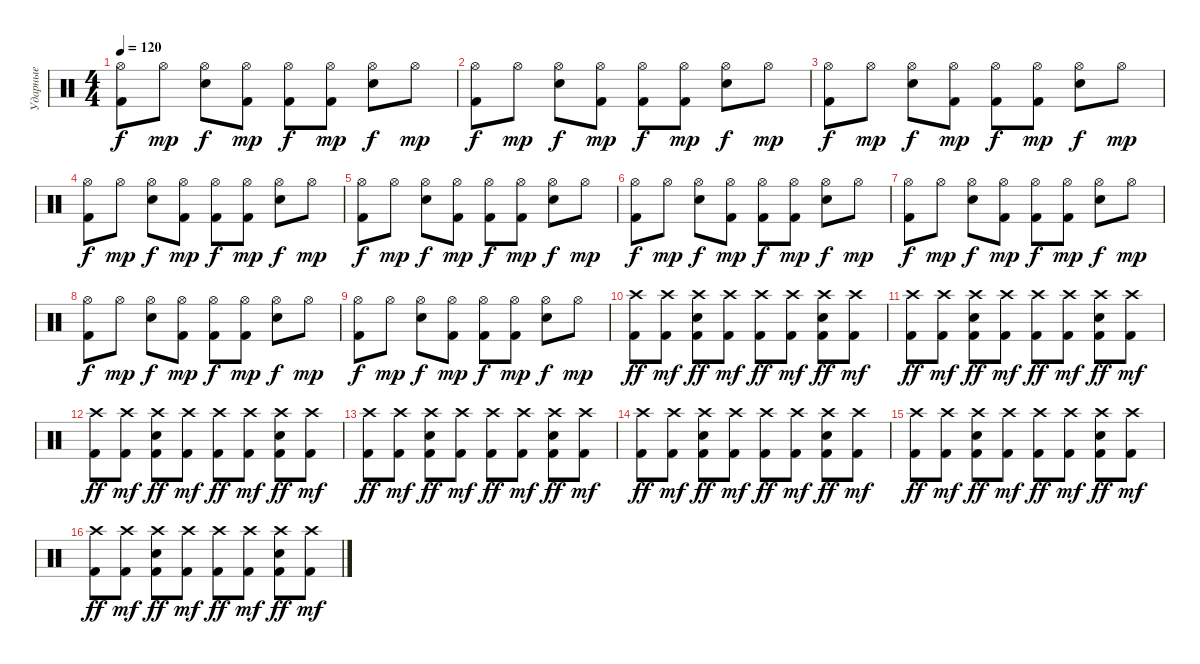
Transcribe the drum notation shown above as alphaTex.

\track ("Ударные" "Ударные") {instrument percussion}
\staff {score}
\articulation defaults
\ts (4 4)
\tempo 120
\clef neutral
\ks c
("Hi-Hat (open)" "Kick (hit) 2").8{dy f} "Hi-Hat (open)".8{dy mp} ("Hi-Hat (open)" "Snare (hit) 2").8{dy f} ("Hi-Hat (open)" "Kick (hit) 2").8{dy mp} ("Hi-Hat (open)" "Kick (hit) 2").8{dy f} ("Hi-Hat (open)" "Kick (hit) 2").8{dy mp} ("Hi-Hat (open)" "Snare (hit) 2").8{dy f} "Hi-Hat (open)".8{dy mp} |
("Hi-Hat (open)" "Kick (hit) 2").8{dy f} "Hi-Hat (open)".8{dy mp} ("Hi-Hat (open)" "Snare (hit) 2").8{dy f} ("Hi-Hat (open)" "Kick (hit) 2").8{dy mp} ("Hi-Hat (open)" "Kick (hit) 2").8{dy f} ("Hi-Hat (open)" "Kick (hit) 2").8{dy mp} ("Hi-Hat (open)" "Snare (hit) 2").8{dy f} "Hi-Hat (open)".8{dy mp} |
("Hi-Hat (open)" "Kick (hit) 2").8{dy f} "Hi-Hat (open)".8{dy mp} ("Hi-Hat (open)" "Snare (hit) 2").8{dy f} ("Hi-Hat (open)" "Kick (hit) 2").8{dy mp} ("Hi-Hat (open)" "Kick (hit) 2").8{dy f} ("Hi-Hat (open)" "Kick (hit) 2").8{dy mp} ("Hi-Hat (open)" "Snare (hit) 2").8{dy f} "Hi-Hat (open)".8{dy mp} |
("Hi-Hat (open)" "Kick (hit) 2").8{dy f} "Hi-Hat (open)".8{dy mp} ("Hi-Hat (open)" "Snare (hit) 2").8{dy f} ("Hi-Hat (open)" "Kick (hit) 2").8{dy mp} ("Hi-Hat (open)" "Kick (hit) 2").8{dy f} ("Hi-Hat (open)" "Kick (hit) 2").8{dy mp} ("Hi-Hat (open)" "Snare (hit) 2").8{dy f} "Hi-Hat (open)".8{dy mp} |
("Hi-Hat (open)" "Kick (hit) 2").8{dy f} "Hi-Hat (open)".8{dy mp} ("Hi-Hat (open)" "Snare (hit) 2").8{dy f} ("Hi-Hat (open)" "Kick (hit) 2").8{dy mp} ("Hi-Hat (open)" "Kick (hit) 2").8{dy f} ("Hi-Hat (open)" "Kick (hit) 2").8{dy mp} ("Hi-Hat (open)" "Snare (hit) 2").8{dy f} "Hi-Hat (open)".8{dy mp} |
("Hi-Hat (open)" "Kick (hit) 2").8{dy f} "Hi-Hat (open)".8{dy mp} ("Hi-Hat (open)" "Snare (hit) 2").8{dy f} ("Hi-Hat (open)" "Kick (hit) 2").8{dy mp} ("Hi-Hat (open)" "Kick (hit) 2").8{dy f} ("Hi-Hat (open)" "Kick (hit) 2").8{dy mp} ("Hi-Hat (open)" "Snare (hit) 2").8{dy f} "Hi-Hat (open)".8{dy mp} |
("Hi-Hat (open)" "Kick (hit) 2").8{dy f} "Hi-Hat (open)".8{dy mp} ("Hi-Hat (open)" "Snare (hit) 2").8{dy f} ("Hi-Hat (open)" "Kick (hit) 2").8{dy mp} ("Hi-Hat (open)" "Kick (hit) 2").8{dy f} ("Hi-Hat (open)" "Kick (hit) 2").8{dy mp} ("Hi-Hat (open)" "Snare (hit) 2").8{dy f} "Hi-Hat (open)".8{dy mp} |
("Hi-Hat (open)" "Kick (hit) 2").8{dy f} "Hi-Hat (open)".8{dy mp} ("Hi-Hat (open)" "Snare (hit) 2").8{dy f} ("Hi-Hat (open)" "Kick (hit) 2").8{dy mp} ("Hi-Hat (open)" "Kick (hit) 2").8{dy f} ("Hi-Hat (open)" "Kick (hit) 2").8{dy mp} ("Hi-Hat (open)" "Snare (hit) 2").8{dy f} "Hi-Hat (open)".8{dy mp} |
("Hi-Hat (open)" "Kick (hit) 2").8{dy f} "Hi-Hat (open)".8{dy mp} ("Hi-Hat (open)" "Snare (hit) 2").8{dy f} ("Hi-Hat (open)" "Kick (hit) 2").8{dy mp} ("Hi-Hat (open)" "Kick (hit) 2").8{dy f} ("Hi-Hat (open)" "Kick (hit) 2").8{dy mp} ("Hi-Hat (open)" "Snare (hit) 2").8{dy f} "Hi-Hat (open)".8{dy mp} |
("Crash high (hit)" "Kick (hit) 2").8{dy ff} ("Crash high (hit)" "Kick (hit) 2").8{dy mf} ("Crash high (hit)" "Electric Snare (hit)" "Kick (hit) 2").8{dy ff} ("Crash high (hit)" "Kick (hit) 2").8{dy mf} ("Crash high (hit)" "Kick (hit) 2").8{dy ff} ("Crash high (hit)" "Kick (hit) 2").8{dy mf} ("Crash high (hit)" "Electric Snare (hit)" "Kick (hit) 2").8{dy ff} ("Crash high (hit)" "Kick (hit) 2").8{dy mf} |
("Crash high (hit)" "Kick (hit) 2").8{dy ff} ("Crash high (hit)" "Kick (hit) 2").8{dy mf} ("Crash high (hit)" "Electric Snare (hit)" "Kick (hit) 2").8{dy ff} ("Crash high (hit)" "Kick (hit) 2").8{dy mf} ("Crash high (hit)" "Kick (hit) 2").8{dy ff} ("Crash high (hit)" "Kick (hit) 2").8{dy mf} ("Crash high (hit)" "Electric Snare (hit)" "Kick (hit) 2").8{dy ff} ("Crash high (hit)" "Kick (hit) 2").8{dy mf} |
("Crash high (hit)" "Kick (hit) 2").8{dy ff} ("Crash high (hit)" "Kick (hit) 2").8{dy mf} ("Crash high (hit)" "Electric Snare (hit)" "Kick (hit) 2").8{dy ff} ("Crash high (hit)" "Kick (hit) 2").8{dy mf} ("Crash high (hit)" "Kick (hit) 2").8{dy ff} ("Crash high (hit)" "Kick (hit) 2").8{dy mf} ("Crash high (hit)" "Electric Snare (hit)" "Kick (hit) 2").8{dy ff} ("Crash high (hit)" "Kick (hit) 2").8{dy mf} |
("Crash high (hit)" "Kick (hit) 2").8{dy ff} ("Crash high (hit)" "Kick (hit) 2").8{dy mf} ("Crash high (hit)" "Electric Snare (hit)" "Kick (hit) 2").8{dy ff} ("Crash high (hit)" "Kick (hit) 2").8{dy mf} ("Crash high (hit)" "Kick (hit) 2").8{dy ff} ("Crash high (hit)" "Kick (hit) 2").8{dy mf} ("Crash high (hit)" "Electric Snare (hit)" "Kick (hit) 2").8{dy ff} ("Crash high (hit)" "Kick (hit) 2").8{dy mf} |
("Crash high (hit)" "Kick (hit) 2").8{dy ff} ("Crash high (hit)" "Kick (hit) 2").8{dy mf} ("Crash high (hit)" "Electric Snare (hit)" "Kick (hit) 2").8{dy ff} ("Crash high (hit)" "Kick (hit) 2").8{dy mf} ("Crash high (hit)" "Kick (hit) 2").8{dy ff} ("Crash high (hit)" "Kick (hit) 2").8{dy mf} ("Crash high (hit)" "Electric Snare (hit)" "Kick (hit) 2").8{dy ff} ("Crash high (hit)" "Kick (hit) 2").8{dy mf} |
("Crash high (hit)" "Kick (hit) 2").8{dy ff} ("Crash high (hit)" "Kick (hit) 2").8{dy mf} ("Crash high (hit)" "Electric Snare (hit)" "Kick (hit) 2").8{dy ff} ("Crash high (hit)" "Kick (hit) 2").8{dy mf} ("Crash high (hit)" "Kick (hit) 2").8{dy ff} ("Crash high (hit)" "Kick (hit) 2").8{dy mf} ("Crash high (hit)" "Electric Snare (hit)" "Kick (hit) 2").8{dy ff} ("Crash high (hit)" "Kick (hit) 2").8{dy mf} |
("Crash high (hit)" "Kick (hit) 2").8{dy ff} ("Crash high (hit)" "Kick (hit) 2").8{dy mf} ("Crash high (hit)" "Electric Snare (hit)" "Kick (hit) 2").8{dy ff} ("Crash high (hit)" "Kick (hit) 2").8{dy mf} ("Crash high (hit)" "Kick (hit) 2").8{dy ff} ("Crash high (hit)" "Kick (hit) 2").8{dy mf} ("Crash high (hit)" "Electric Snare (hit)" "Kick (hit) 2").8{dy ff} ("Crash high (hit)" "Kick (hit) 2").8{dy mf}
